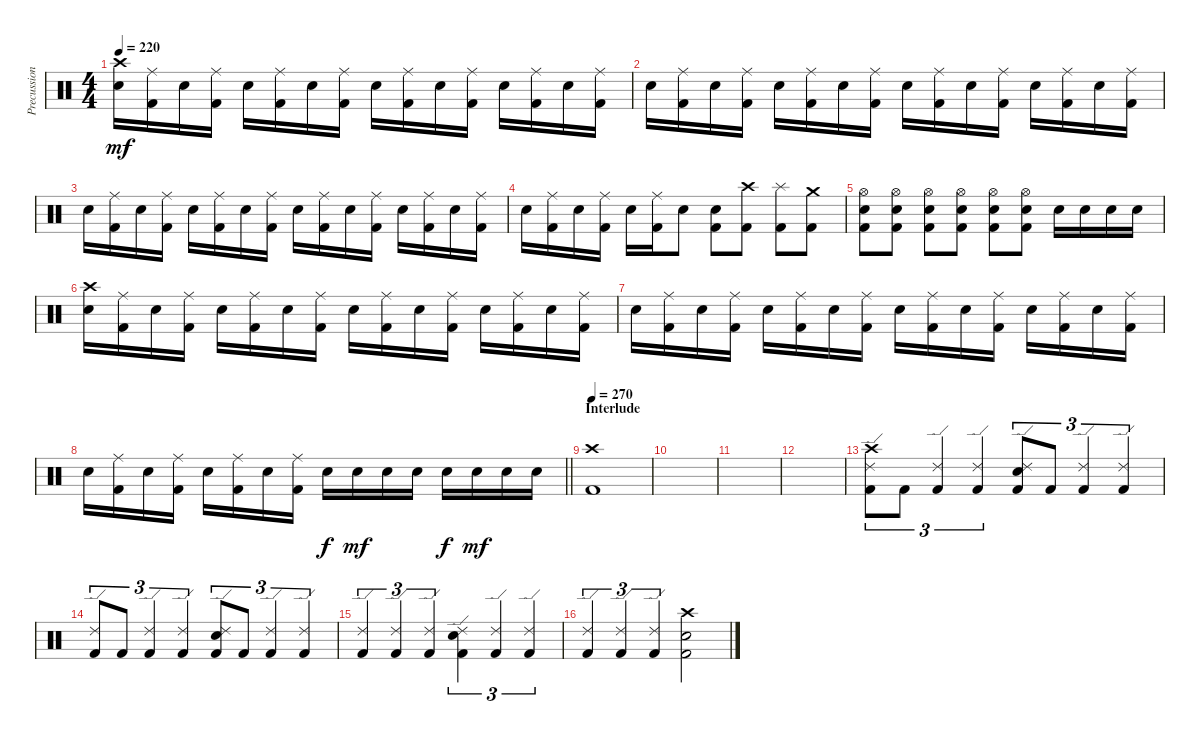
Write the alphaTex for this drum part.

\track ("Precussion" "Precussion") {instrument percussion}
\staff {score}
\articulation defaults
\ts (4 4)
\tempo 220
\clef neutral
\ks c
("Crash high (hit)" "Electric Snare (hit)").16{dy mf} ("Ride (middle)" "Kick (hit) 2").16 "Electric Snare (hit)".16 ("Ride (middle)" "Kick (hit) 2").16 "Electric Snare (hit)".16 ("Ride (middle)" "Kick (hit) 2").16 "Electric Snare (hit)".16 ("Ride (middle)" "Kick (hit) 2").16 "Electric Snare (hit)".16 ("Ride (middle)" "Kick (hit) 2").16 "Electric Snare (hit)".16 ("Ride (middle)" "Kick (hit) 2").16 "Electric Snare (hit)".16 ("Ride (middle)" "Kick (hit) 2").16 "Electric Snare (hit)".16 ("Ride (middle)" "Kick (hit) 2").16 |
"Electric Snare (hit)".16 ("Ride (middle)" "Kick (hit) 2").16 "Electric Snare (hit)".16 ("Ride (middle)" "Kick (hit) 2").16 "Electric Snare (hit)".16 ("Ride (middle)" "Kick (hit) 2").16 "Electric Snare (hit)".16 ("Ride (middle)" "Kick (hit) 2").16 "Electric Snare (hit)".16 ("Ride (middle)" "Kick (hit) 2").16 "Electric Snare (hit)".16 ("Ride (middle)" "Kick (hit) 2").16 "Electric Snare (hit)".16 ("Ride (middle)" "Kick (hit) 2").16 "Electric Snare (hit)".16 ("Ride (middle)" "Kick (hit) 2").16 |
"Electric Snare (hit)".16 ("Ride (middle)" "Kick (hit) 2").16 "Electric Snare (hit)".16 ("Ride (middle)" "Kick (hit) 2").16 "Electric Snare (hit)".16 ("Ride (middle)" "Kick (hit) 2").16 "Electric Snare (hit)".16 ("Ride (middle)" "Kick (hit) 2").16 "Electric Snare (hit)".16 ("Ride (middle)" "Kick (hit) 2").16 "Electric Snare (hit)".16 ("Ride (middle)" "Kick (hit) 2").16 "Electric Snare (hit)".16 ("Ride (middle)" "Kick (hit) 2").16 "Electric Snare (hit)".16 ("Ride (middle)" "Kick (hit) 2").16 |
"Electric Snare (hit)".16 ("Ride (middle)" "Kick (hit) 2").16 "Electric Snare (hit)".16 ("Ride (middle)" "Kick (hit) 2").16 "Electric Snare (hit)".16 ("Ride (middle)" "Kick (hit) 2").16 "Electric Snare (hit)".8 ("Electric Snare (hit)" "Kick (hit) 2").8 ("Crash high (hit)" "Kick (hit) 2").8 ("Splash (hit)" "Kick (hit) 2").8 ("Crash medium (hit)" "Kick (hit) 2").8 |
("Hi-Hat (open)" "Electric Snare (hit)" "Kick (hit) 2").8 ("Hi-Hat (open)" "Electric Snare (hit)" "Kick (hit) 2").8 ("Hi-Hat (open)" "Electric Snare (hit)" "Kick (hit) 2").8 ("Hi-Hat (open)" "Electric Snare (hit)" "Kick (hit) 2").8 ("Hi-Hat (open)" "Electric Snare (hit)" "Kick (hit) 2").8 ("Hi-Hat (open)" "Electric Snare (hit)" "Kick (hit) 2").8 "Electric Snare (hit)".16 "Electric Snare (hit)".16 "Electric Snare (hit)".16 "Electric Snare (hit)".16 |
("Crash high (hit)" "Electric Snare (hit)").16 ("Ride (middle)" "Kick (hit) 2").16 "Electric Snare (hit)".16 ("Ride (middle)" "Kick (hit) 2").16 "Electric Snare (hit)".16 ("Ride (middle)" "Kick (hit) 2").16 "Electric Snare (hit)".16 ("Ride (middle)" "Kick (hit) 2").16 "Electric Snare (hit)".16 ("Ride (middle)" "Kick (hit) 2").16 "Electric Snare (hit)".16 ("Ride (middle)" "Kick (hit) 2").16 "Electric Snare (hit)".16 ("Ride (middle)" "Kick (hit) 2").16 "Electric Snare (hit)".16 ("Ride (middle)" "Kick (hit) 2").16 |
"Electric Snare (hit)".16 ("Ride (middle)" "Kick (hit) 2").16 "Electric Snare (hit)".16 ("Ride (middle)" "Kick (hit) 2").16 "Electric Snare (hit)".16 ("Ride (middle)" "Kick (hit) 2").16 "Electric Snare (hit)".16 ("Ride (middle)" "Kick (hit) 2").16 "Electric Snare (hit)".16 ("Ride (middle)" "Kick (hit) 2").16 "Electric Snare (hit)".16 ("Ride (middle)" "Kick (hit) 2").16 "Electric Snare (hit)".16 ("Ride (middle)" "Kick (hit) 2").16 "Electric Snare (hit)".16 ("Ride (middle)" "Kick (hit) 2").16 |
\barLineRight lightlight "Electric Snare (hit)".16
("Ride (middle)" "Kick (hit) 2").16 "Electric Snare (hit)".16 ("Ride (middle)" "Kick (hit) 2").16 "Electric Snare (hit)".16 ("Ride (middle)" "Kick (hit) 2").16 "Electric Snare (hit)".16 ("Ride (middle)" "Kick (hit) 2").16 "Electric Snare (hit)".16{dy f} "Electric Snare (hit)".16{dy mf} "Electric Snare (hit)".16 "Electric Snare (hit)".16 "Electric Snare (hit)".16{dy f} "Electric Snare (hit)".16{dy mf} "Electric Snare (hit)".16 "Electric Snare (hit)".16 |
\section ("" "Interlude")
\tempo 270
("Crash high (hit)" "Kick (hit) 2").1 |
|
|
|
("Crash high (hit)" "Ride (edge) 2" "Kick (hit) 2").8{tu (3 2)} "Kick (hit) 2".8{tu (3 2)} ("Ride (edge) 2" "Kick (hit) 2").4{tu (3 2)} ("Ride (edge) 2" "Kick (hit) 2").4{tu (3 2)} ("Ride (edge) 2" "Electric Snare (hit)" "Kick (hit) 2").8{tu (3 2)} "Kick (hit) 2".8{tu (3 2)} ("Ride (edge) 2" "Kick (hit) 2").4{tu (3 2)} ("Ride (edge) 2" "Kick (hit) 2").4{tu (3 2)} |
("Ride (edge) 2" "Kick (hit) 2").8{tu (3 2)} "Kick (hit) 2".8{tu (3 2)} ("Ride (edge) 2" "Kick (hit) 2").4{tu (3 2)} ("Ride (edge) 2" "Kick (hit) 2").4{tu (3 2)} ("Ride (edge) 2" "Electric Snare (hit)" "Kick (hit) 2").8{tu (3 2)} "Kick (hit) 2".8{tu (3 2)} ("Ride (edge) 2" "Kick (hit) 2").4{tu (3 2)} ("Ride (edge) 2" "Kick (hit) 2").4{tu (3 2)} |
("Ride (edge) 2" "Kick (hit) 2").4{tu (3 2)} ("Ride (edge) 2" "Kick (hit) 2").4{tu (3 2)} ("Ride (edge) 2" "Kick (hit) 2").4{tu (3 2)} ("Ride (edge) 2" "Electric Snare (hit)" "Kick (hit) 2").4{tu (3 2)} ("Ride (edge) 2" "Kick (hit) 2").4{tu (3 2)} ("Ride (edge) 2" "Kick (hit) 2").4{tu (3 2)} |
("Ride (edge) 2" "Kick (hit) 2").4{tu (3 2)} ("Ride (edge) 2" "Kick (hit) 2").4{tu (3 2)} ("Ride (edge) 2" "Kick (hit) 2").4{tu (3 2)} ("Crash high (hit)" "Electric Snare (hit)" "Kick (hit) 2").2
